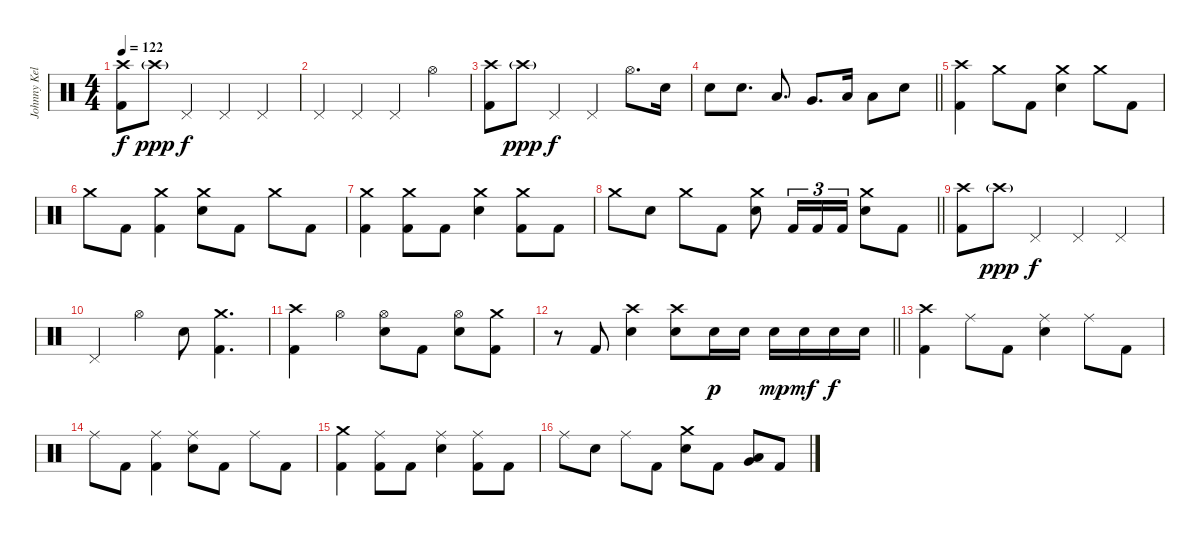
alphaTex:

\track ("Johnny Kelly" "Johnny Kel") {instrument percussion}
\staff {score}
\articulation defaults
\ts (4 4)
\section ("" "")
\tempo 122
\clef neutral
\ks c
("Crash high (hit)" "Kick (hit) 2").8{dy f} "Crash high (hit)"{g}.8{dy ppp} "Pedal Hi-Hat (hit)".4{dy f} "Pedal Hi-Hat (hit)".4 "Pedal Hi-Hat (hit)".4 |
"Pedal Hi-Hat (hit)".4 "Pedal Hi-Hat (hit)".4 "Pedal Hi-Hat (hit)".4 "Hi-Hat (open)".4 |
("Crash high (hit)" "Kick (hit) 2").8 "Crash high (hit)"{g}.8{dy ppp} "Pedal Hi-Hat (hit)".4{dy f} "Pedal Hi-Hat (hit)".4 "Hi-Hat (open)".8{d} "Electric Snare (hit)".16 |
\barLineRight lightlight "Electric Snare (hit)".8 "Electric Snare (hit)".8{d} "Low Tom (hit)".8{d} "Very Low Tom (hit)".8{d} "Low Floor Tom (hit)".16 "Low Floor Tom (hit)".8 "Electric Snare (hit)".8
|
\section ("" "")
("Crash high (hit)" "Kick (hit) 2").4 "Crash medium (hit)".8 "Kick (hit) 2".8 ("Crash medium (hit)" "Electric Snare (hit)").4 "Crash medium (hit)".8 "Kick (hit) 2".8 |
"Crash medium (hit)".8 "Kick (hit) 2".8 ("Crash medium (hit)" "Kick (hit) 2").4 ("Crash medium (hit)" "Electric Snare (hit)").8 "Kick (hit) 2".8 "Crash medium (hit)".8 "Kick (hit) 2".8 |
("Crash medium (hit)" "Kick (hit) 2").4 ("Crash medium (hit)" "Kick (hit) 2").8 "Kick (hit) 2".8 ("Crash medium (hit)" "Electric Snare (hit)").4 ("Crash medium (hit)" "Kick (hit) 2").8 "Kick (hit) 2".8 |
\barLineRight lightlight "Crash medium (hit)".8 "Electric Snare (hit)".8 "Crash medium (hit)".8 "Kick (hit) 2".8
("Crash medium (hit)" "Electric Snare (hit)").8 "Kick (hit) 2".16{tu (3 2)} "Kick (hit) 2".16{tu (3 2)} "Kick (hit) 2".16{tu (3 2)} ("Crash medium (hit)" "Electric Snare (hit)").8 "Kick (hit) 2".8 |
\section ("" "")
("Crash high (hit)" "Kick (hit) 2").8 "Crash high (hit)"{g}.8{dy ppp} "Pedal Hi-Hat (hit)".4{dy f} "Pedal Hi-Hat (hit)".4 "Pedal Hi-Hat (hit)".4 |
"Pedal Hi-Hat (hit)".4 "Hi-Hat (open)".4 "Electric Snare (hit)".8 ("Crash medium (hit)" "Kick (hit) 2").4{d} |
("Crash high (hit)" "Kick (hit) 2").4 "Hi-Hat (open)".4 ("Hi-Hat (open)" "Electric Snare (hit)").8 "Kick (hit) 2".8 ("Hi-Hat (open)" "Electric Snare (hit)").8 ("Crash medium (hit)" "Kick (hit) 2").8 |
\barLineRight lightlight
r.8 "Kick (hit) 2".8 ("Crash high (hit)" "Electric Snare (hit)").4 ("Crash high (hit)" "Electric Snare (hit)").8 "Electric Snare (hit)".16{dy p} "Electric Snare (hit)".16 "Electric Snare (hit)".16{dy mp} "Electric Snare (hit)".16{dy mf} "Electric Snare (hit)".16{dy f} "Electric Snare (hit)".16 |
\section ("" "")
("Crash high (hit)" "Kick (hit) 2").4 "Ride (middle)".8 "Kick (hit) 2".8 ("Ride (middle)" "Electric Snare (hit)").4 "Ride (middle)".8 "Kick (hit) 2".8 |
"Ride (middle)".8 "Kick (hit) 2".8 ("Ride (middle)" "Kick (hit) 2").4 ("Ride (middle)" "Electric Snare (hit)").8 "Kick (hit) 2".8 "Ride (middle)".8 "Kick (hit) 2".8 |
("Crash medium (hit)" "Kick (hit) 2").4 ("Ride (middle)" "Kick (hit) 2").8 "Kick (hit) 2".8 ("Ride (middle)" "Electric Snare (hit)").4 ("Ride (middle)" "Kick (hit) 2").8 "Kick (hit) 2".8 |
"Ride (middle)".8 "Electric Snare (hit)".8 "Ride (middle)".8 "Kick (hit) 2".8 ("Crash medium (hit)" "Electric Snare (hit)").8 "Kick (hit) 2".8 ("Very Low Tom (hit)" "Low Floor Tom (hit)").8 "Kick (hit) 2".8
